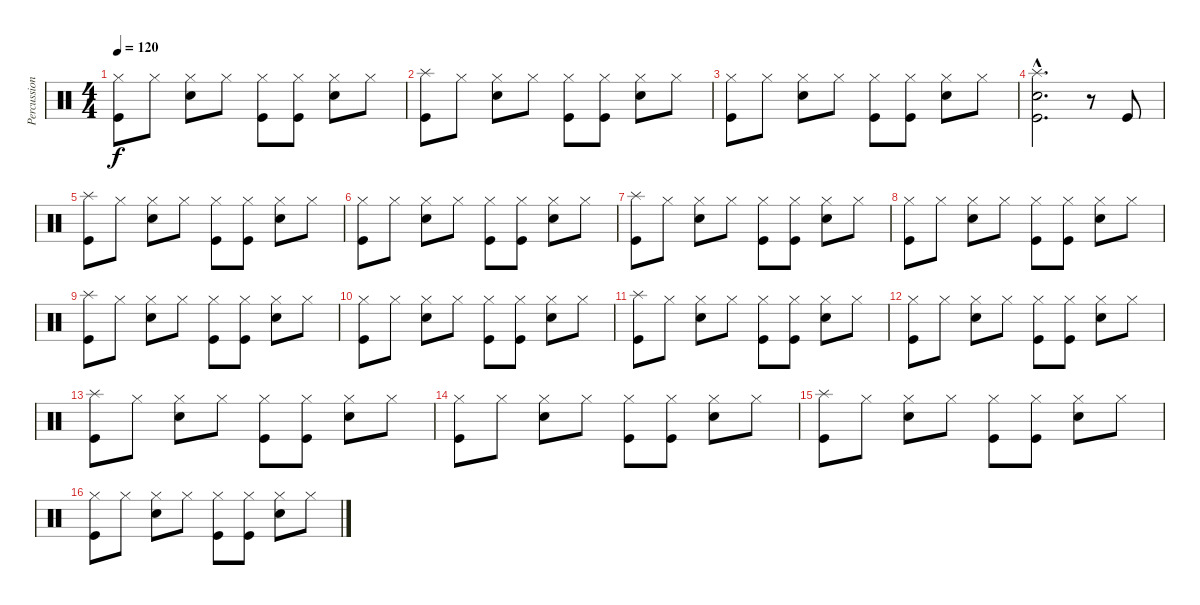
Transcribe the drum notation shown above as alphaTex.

\track ("Percussion" "Percussion") {instrument percussion}
\staff {score}
\articulation defaults
\ts (4 4)
\tempo 120
\clef neutral
\ks c
("Hi-Hat (closed)" "Kick (hit)").8{dy f} "Hi-Hat (closed)".8 ("Hi-Hat (closed)" "Snare (hit) 2").8 "Hi-Hat (closed)".8 ("Hi-Hat (closed)" "Kick (hit)").8 ("Hi-Hat (closed)" "Kick (hit)").8 ("Hi-Hat (closed)" "Snare (hit) 2").8 "Hi-Hat (closed)".8 |
("Splash (hit)" "Kick (hit)").8 "Hi-Hat (closed)".8 ("Hi-Hat (closed)" "Snare (hit) 2").8 "Hi-Hat (closed)".8 ("Hi-Hat (closed)" "Kick (hit)").8 ("Hi-Hat (closed)" "Kick (hit)").8 ("Hi-Hat (closed)" "Snare (hit) 2").8 "Hi-Hat (closed)".8 |
("Hi-Hat (closed)" "Kick (hit)").8 "Hi-Hat (closed)".8 ("Hi-Hat (closed)" "Snare (hit) 2").8 "Hi-Hat (closed)".8 ("Hi-Hat (closed)" "Kick (hit)").8 ("Hi-Hat (closed)" "Kick (hit)").8 ("Hi-Hat (closed)" "Snare (hit) 2").8 "Hi-Hat (closed)".8 |
("Splash (hit)"{hac} "Kick (hit)"{hac} "Snare (hit) 2"{hac}).2{d} r.8 "Kick (hit)".8 |
("Splash (hit)" "Kick (hit)").8 "Hi-Hat (closed)".8 ("Hi-Hat (closed)" "Snare (hit) 2").8 "Hi-Hat (closed)".8 ("Hi-Hat (closed)" "Kick (hit)").8 ("Hi-Hat (closed)" "Kick (hit)").8 ("Hi-Hat (closed)" "Snare (hit) 2").8 "Hi-Hat (closed)".8 |
("Hi-Hat (closed)" "Kick (hit)").8 "Hi-Hat (closed)".8 ("Hi-Hat (closed)" "Snare (hit) 2").8 "Hi-Hat (closed)".8 ("Hi-Hat (closed)" "Kick (hit)").8 ("Hi-Hat (closed)" "Kick (hit)").8 ("Hi-Hat (closed)" "Snare (hit) 2").8 "Hi-Hat (closed)".8 |
("Splash (hit)" "Kick (hit)").8 "Hi-Hat (closed)".8 ("Hi-Hat (closed)" "Snare (hit) 2").8 "Hi-Hat (closed)".8 ("Hi-Hat (closed)" "Kick (hit)").8 ("Hi-Hat (closed)" "Kick (hit)").8 ("Hi-Hat (closed)" "Snare (hit) 2").8 "Hi-Hat (closed)".8 |
("Hi-Hat (closed)" "Kick (hit)").8 "Hi-Hat (closed)".8 ("Hi-Hat (closed)" "Snare (hit) 2").8 "Hi-Hat (closed)".8 ("Hi-Hat (closed)" "Kick (hit)").8 ("Hi-Hat (closed)" "Kick (hit)").8 ("Hi-Hat (closed)" "Snare (hit) 2").8 "Hi-Hat (closed)".8 |
("Splash (hit)" "Kick (hit)").8 "Hi-Hat (closed)".8 ("Hi-Hat (closed)" "Snare (hit) 2").8 "Hi-Hat (closed)".8 ("Hi-Hat (closed)" "Kick (hit)").8 ("Hi-Hat (closed)" "Kick (hit)").8 ("Hi-Hat (closed)" "Snare (hit) 2").8 "Hi-Hat (closed)".8 |
("Hi-Hat (closed)" "Kick (hit)").8 "Hi-Hat (closed)".8 ("Hi-Hat (closed)" "Snare (hit) 2").8 "Hi-Hat (closed)".8 ("Hi-Hat (closed)" "Kick (hit)").8 ("Hi-Hat (closed)" "Kick (hit)").8 ("Hi-Hat (closed)" "Snare (hit) 2").8 "Hi-Hat (closed)".8 |
("Splash (hit)" "Kick (hit)").8 "Hi-Hat (closed)".8 ("Hi-Hat (closed)" "Snare (hit) 2").8 "Hi-Hat (closed)".8 ("Hi-Hat (closed)" "Kick (hit)").8 ("Hi-Hat (closed)" "Kick (hit)").8 ("Hi-Hat (closed)" "Snare (hit) 2").8 "Hi-Hat (closed)".8 |
("Hi-Hat (closed)" "Kick (hit)").8 "Hi-Hat (closed)".8 ("Hi-Hat (closed)" "Snare (hit) 2").8 "Hi-Hat (closed)".8 ("Hi-Hat (closed)" "Kick (hit)").8 ("Hi-Hat (closed)" "Kick (hit)").8 ("Hi-Hat (closed)" "Snare (hit) 2").8 "Hi-Hat (closed)".8 |
("Splash (hit)" "Kick (hit)").8 "Hi-Hat (closed)".8 ("Hi-Hat (closed)" "Snare (hit) 2").8 "Hi-Hat (closed)".8 ("Hi-Hat (closed)" "Kick (hit)").8 ("Hi-Hat (closed)" "Kick (hit)").8 ("Hi-Hat (closed)" "Snare (hit) 2").8 "Hi-Hat (closed)".8 |
("Hi-Hat (closed)" "Kick (hit)").8 "Hi-Hat (closed)".8 ("Hi-Hat (closed)" "Snare (hit) 2").8 "Hi-Hat (closed)".8 ("Hi-Hat (closed)" "Kick (hit)").8 ("Hi-Hat (closed)" "Kick (hit)").8 ("Hi-Hat (closed)" "Snare (hit) 2").8 "Hi-Hat (closed)".8 |
("Splash (hit)" "Kick (hit)").8 "Hi-Hat (closed)".8 ("Hi-Hat (closed)" "Snare (hit) 2").8 "Hi-Hat (closed)".8 ("Hi-Hat (closed)" "Kick (hit)").8 ("Hi-Hat (closed)" "Kick (hit)").8 ("Hi-Hat (closed)" "Snare (hit) 2").8 "Hi-Hat (closed)".8 |
("Hi-Hat (closed)" "Kick (hit)").8 "Hi-Hat (closed)".8 ("Hi-Hat (closed)" "Snare (hit) 2").8 "Hi-Hat (closed)".8 ("Hi-Hat (closed)" "Kick (hit)").8 ("Hi-Hat (closed)" "Kick (hit)").8 ("Hi-Hat (closed)" "Snare (hit) 2").8 "Hi-Hat (closed)".8
